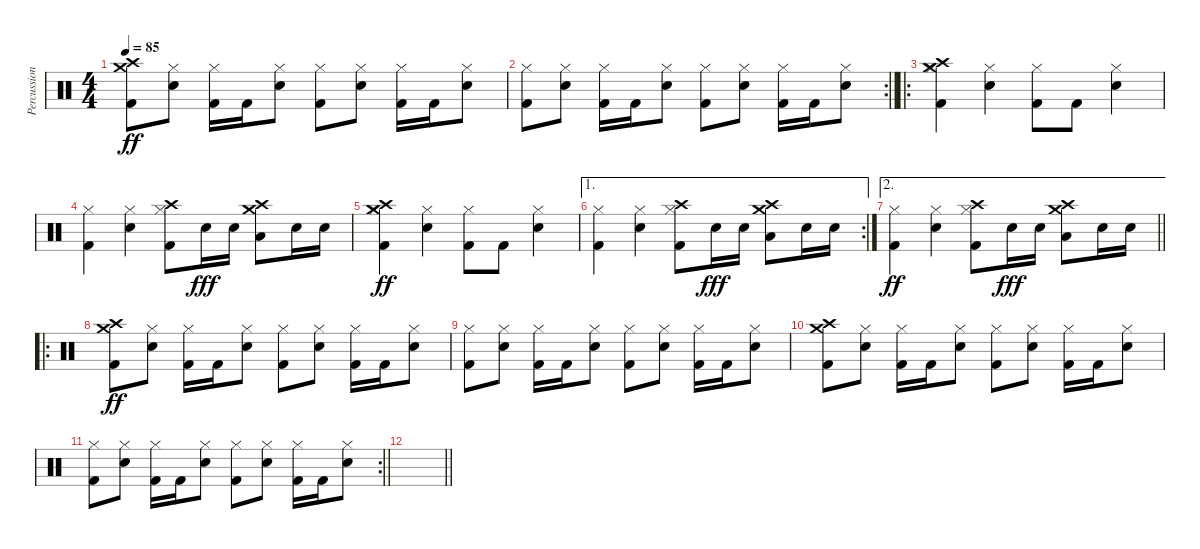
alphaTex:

\track ("Percussion" "Percussion") {instrument percussion}
\staff {score}
\articulation defaults
\ts (4 4)
\tempo 85
\clef neutral
\ks c
("Crash high (hit)" "Crash medium (hit)" "Kick (hit) 2").8{dy ff} ("Hi-Hat (closed)" "Snare (hit) 2").8 ("Hi-Hat (closed)" "Kick (hit) 2").16 "Kick (hit) 2".16 ("Hi-Hat (closed)" "Snare (hit) 2").8 ("Hi-Hat (closed)" "Kick (hit) 2").8 ("Hi-Hat (closed)" "Snare (hit) 2").8 ("Hi-Hat (closed)" "Kick (hit) 2").16 "Kick (hit) 2".16 ("Hi-Hat (closed)" "Snare (hit) 2").8 |
\rc 2
\barLineRight lightlight
("Hi-Hat (closed)" "Kick (hit) 2").8 ("Hi-Hat (closed)" "Snare (hit) 2").8 ("Hi-Hat (closed)" "Kick (hit) 2").16 "Kick (hit) 2".16 ("Hi-Hat (closed)" "Snare (hit) 2").8 ("Hi-Hat (closed)" "Kick (hit) 2").8 ("Hi-Hat (closed)" "Snare (hit) 2").8 ("Hi-Hat (closed)" "Kick (hit) 2").16 "Kick (hit) 2".16 ("Hi-Hat (closed)" "Snare (hit) 2").8 |
\ro
("Hi-Hat (closed)" "Crash medium (hit)" "Crash high (hit)" "Kick (hit) 2").4 ("Hi-Hat (closed)" "Snare (hit) 2").4 ("Hi-Hat (closed)" "Kick (hit) 2").8 "Kick (hit) 2".8 ("Hi-Hat (closed)" "Snare (hit) 2").4 |
("Hi-Hat (closed)" "Kick (hit) 2").4 ("Hi-Hat (closed)" "Snare (hit) 2").4 ("Hi-Hat (closed)" "Crash high (hit)" "Kick (hit) 2").8 "Snare (hit) 2".16{dy fff} "Snare (hit) 2".16 ("Crash high (hit)" "Crash medium (hit)" "Low Floor Tom (hit)").8 "Snare (hit) 2".16 "Snare (hit) 2".16 |
("Hi-Hat (closed)" "Crash medium (hit)" "Crash high (hit)" "Kick (hit) 2").4{dy ff} ("Hi-Hat (closed)" "Snare (hit) 2").4 ("Hi-Hat (closed)" "Kick (hit) 2").8 "Kick (hit) 2".8 ("Hi-Hat (closed)" "Snare (hit) 2").4 |
\ae 1
\rc 2
("Hi-Hat (closed)" "Kick (hit) 2").4 ("Hi-Hat (closed)" "Snare (hit) 2").4 ("Hi-Hat (closed)" "Crash high (hit)" "Kick (hit) 2").8 "Snare (hit) 2".16{dy fff} "Snare (hit) 2".16 ("Crash high (hit)" "Crash medium (hit)" "Low Floor Tom (hit)").8 "Snare (hit) 2".16 "Snare (hit) 2".16 |
\ae 2
\barLineRight lightlight
("Hi-Hat (closed)" "Kick (hit) 2").4{dy ff} ("Hi-Hat (closed)" "Snare (hit) 2").4 ("Hi-Hat (closed)" "Crash high (hit)" "Kick (hit) 2").8 "Snare (hit) 2".16{dy fff} "Snare (hit) 2".16 ("Crash high (hit)" "Crash medium (hit)" "Low Floor Tom (hit)").8 "Snare (hit) 2".16 "Snare (hit) 2".16 |
\ro
("Crash high (hit)" "Crash medium (hit)" "Kick (hit) 2").8{dy ff} ("Hi-Hat (closed)" "Snare (hit) 2").8 ("Hi-Hat (closed)" "Kick (hit) 2").16 "Kick (hit) 2".16 ("Hi-Hat (closed)" "Snare (hit) 2").8 ("Hi-Hat (closed)" "Kick (hit) 2").8 ("Hi-Hat (closed)" "Snare (hit) 2").8 ("Hi-Hat (closed)" "Kick (hit) 2").16 "Kick (hit) 2".16 ("Hi-Hat (closed)" "Snare (hit) 2").8 |
("Hi-Hat (closed)" "Kick (hit) 2").8 ("Hi-Hat (closed)" "Snare (hit) 2").8 ("Hi-Hat (closed)" "Kick (hit) 2").16 "Kick (hit) 2".16 ("Hi-Hat (closed)" "Snare (hit) 2").8 ("Hi-Hat (closed)" "Kick (hit) 2").8 ("Hi-Hat (closed)" "Snare (hit) 2").8 ("Hi-Hat (closed)" "Kick (hit) 2").16 "Kick (hit) 2".16 ("Hi-Hat (closed)" "Snare (hit) 2").8 |
("Crash high (hit)" "Crash medium (hit)" "Kick (hit) 2").8 ("Hi-Hat (closed)" "Snare (hit) 2").8 ("Hi-Hat (closed)" "Kick (hit) 2").16 "Kick (hit) 2".16 ("Hi-Hat (closed)" "Snare (hit) 2").8 ("Hi-Hat (closed)" "Kick (hit) 2").8 ("Hi-Hat (closed)" "Snare (hit) 2").8 ("Hi-Hat (closed)" "Kick (hit) 2").16 "Kick (hit) 2".16 ("Hi-Hat (closed)" "Snare (hit) 2").8 |
\rc 2
\barLineRight lightlight
("Hi-Hat (closed)" "Kick (hit) 2").8 ("Hi-Hat (closed)" "Snare (hit) 2").8 ("Hi-Hat (closed)" "Kick (hit) 2").16 "Kick (hit) 2".16 ("Hi-Hat (closed)" "Snare (hit) 2").8 ("Hi-Hat (closed)" "Kick (hit) 2").8 ("Hi-Hat (closed)" "Snare (hit) 2").8 ("Hi-Hat (closed)" "Kick (hit) 2").16 "Kick (hit) 2".16 ("Hi-Hat (closed)" "Snare (hit) 2").8 |
\barLineRight lightlight
